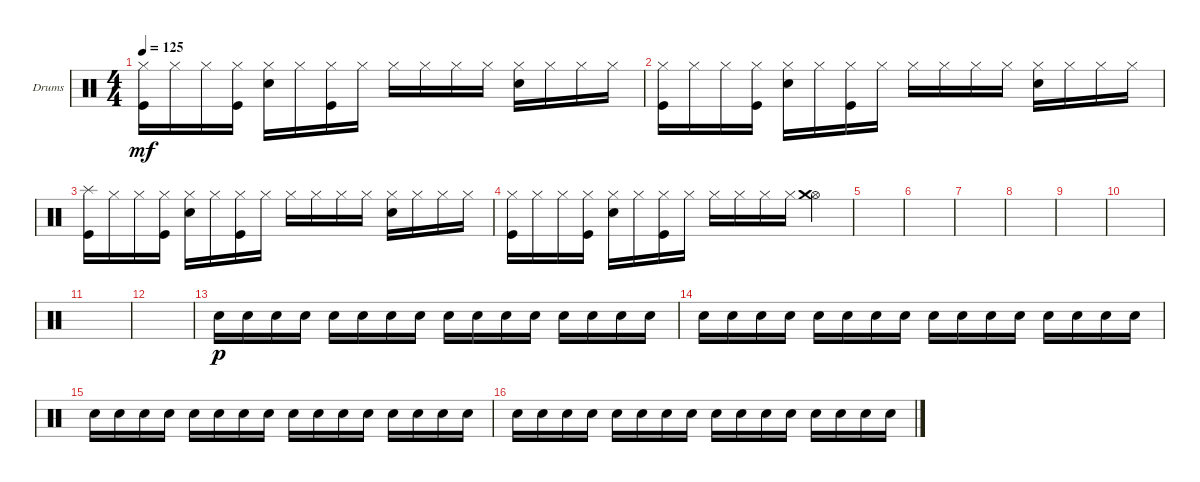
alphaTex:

\defaultSystemsLayout 4
\bracketExtendMode groupsimilarinstruments
\firstSystemTrackNameOrientation horizontal
\otherSystemsTrackNameOrientation horizontal
\track ("Ударные" "Drums") {instrument percussion}
\staff {score}
\articulation defaults
\ts (4 4)
\tempo 125
\clef neutral
\ks c
("Kick (hit)" "Hi-Hat (closed)").16{dy mf} "Hi-Hat (closed)".16 "Hi-Hat (closed)".16 ("Hi-Hat (closed)" "Kick (hit)").16 ("Hi-Hat (closed)" "Snare (hit) 2").16 "Hi-Hat (closed)".16 ("Hi-Hat (closed)" "Kick (hit)").16 "Hi-Hat (closed)".16 "Hi-Hat (closed)".16 "Hi-Hat (closed)".16 "Hi-Hat (closed)".16 "Hi-Hat (closed)".16 ("Hi-Hat (closed)" "Snare (hit) 2").16 "Hi-Hat (closed)".16 "Hi-Hat (closed)".16 "Hi-Hat (closed)".16 |
("Kick (hit)" "Hi-Hat (closed)").16 "Hi-Hat (closed)".16 "Hi-Hat (closed)".16 ("Hi-Hat (closed)" "Kick (hit)").16 ("Hi-Hat (closed)" "Snare (hit) 2").16 "Hi-Hat (closed)".16 ("Hi-Hat (closed)" "Kick (hit)").16 "Hi-Hat (closed)".16 "Hi-Hat (closed)".16 "Hi-Hat (closed)".16 "Hi-Hat (closed)".16 "Hi-Hat (closed)".16 ("Hi-Hat (closed)" "Snare (hit) 2").16 "Hi-Hat (closed)".16 "Hi-Hat (closed)".16 "Hi-Hat (closed)".16 |
("Splash (hit)" "Kick (hit)").16 "Hi-Hat (closed)".16 "Hi-Hat (closed)".16 ("Hi-Hat (closed)" "Kick (hit)").16 ("Hi-Hat (closed)" "Snare (hit) 2").16 "Hi-Hat (closed)".16 ("Hi-Hat (closed)" "Kick (hit)").16 "Hi-Hat (closed)".16 "Hi-Hat (closed)".16 "Hi-Hat (closed)".16 "Hi-Hat (closed)".16 "Hi-Hat (closed)".16 ("Hi-Hat (closed)" "Snare (hit) 2").16 "Hi-Hat (closed)".16 "Hi-Hat (closed)".16 "Hi-Hat (closed)".16 |
("Kick (hit)" "Hi-Hat (closed)").16 "Hi-Hat (closed)".16 "Hi-Hat (closed)".16 ("Hi-Hat (closed)" "Kick (hit)").16 ("Hi-Hat (closed)" "Snare (hit) 2").16 "Hi-Hat (closed)".16 ("Hi-Hat (closed)" "Kick (hit)").16 "Hi-Hat (closed)".16 "Hi-Hat (closed)".16 "Hi-Hat (closed)".16 "Hi-Hat (closed)".16 "Hi-Hat (closed)".16 ("Hi-Hat (open)" "Crash medium (hit)").4 |
|
|
|
|
|
|
|
|
"Snare (hit) 2".16{dy p} "Snare (hit) 2".16 "Snare (hit) 2".16 "Snare (hit) 2".16 "Snare (hit) 2".16 "Snare (hit) 2".16 "Snare (hit) 2".16 "Snare (hit) 2".16 "Snare (hit) 2".16 "Snare (hit) 2".16 "Snare (hit) 2".16 "Snare (hit) 2".16 "Snare (hit) 2".16 "Snare (hit) 2".16 "Snare (hit) 2".16 "Snare (hit) 2".16 |
"Snare (hit) 2".16 "Snare (hit) 2".16 "Snare (hit) 2".16 "Snare (hit) 2".16 "Snare (hit) 2".16 "Snare (hit) 2".16 "Snare (hit) 2".16 "Snare (hit) 2".16 "Snare (hit) 2".16 "Snare (hit) 2".16 "Snare (hit) 2".16 "Snare (hit) 2".16 "Snare (hit) 2".16 "Snare (hit) 2".16 "Snare (hit) 2".16 "Snare (hit) 2".16 |
"Snare (hit) 2".16 "Snare (hit) 2".16 "Snare (hit) 2".16 "Snare (hit) 2".16 "Snare (hit) 2".16 "Snare (hit) 2".16 "Snare (hit) 2".16 "Snare (hit) 2".16 "Snare (hit) 2".16 "Snare (hit) 2".16 "Snare (hit) 2".16 "Snare (hit) 2".16 "Snare (hit) 2".16 "Snare (hit) 2".16 "Snare (hit) 2".16 "Snare (hit) 2".16 |
"Snare (hit) 2".16 "Snare (hit) 2".16 "Snare (hit) 2".16 "Snare (hit) 2".16 "Snare (hit) 2".16 "Snare (hit) 2".16 "Snare (hit) 2".16 "Snare (hit) 2".16 "Snare (hit) 2".16 "Snare (hit) 2".16 "Snare (hit) 2".16 "Snare (hit) 2".16 "Snare (hit) 2".16 "Snare (hit) 2".16 "Snare (hit) 2".16 "Snare (hit) 2".16
